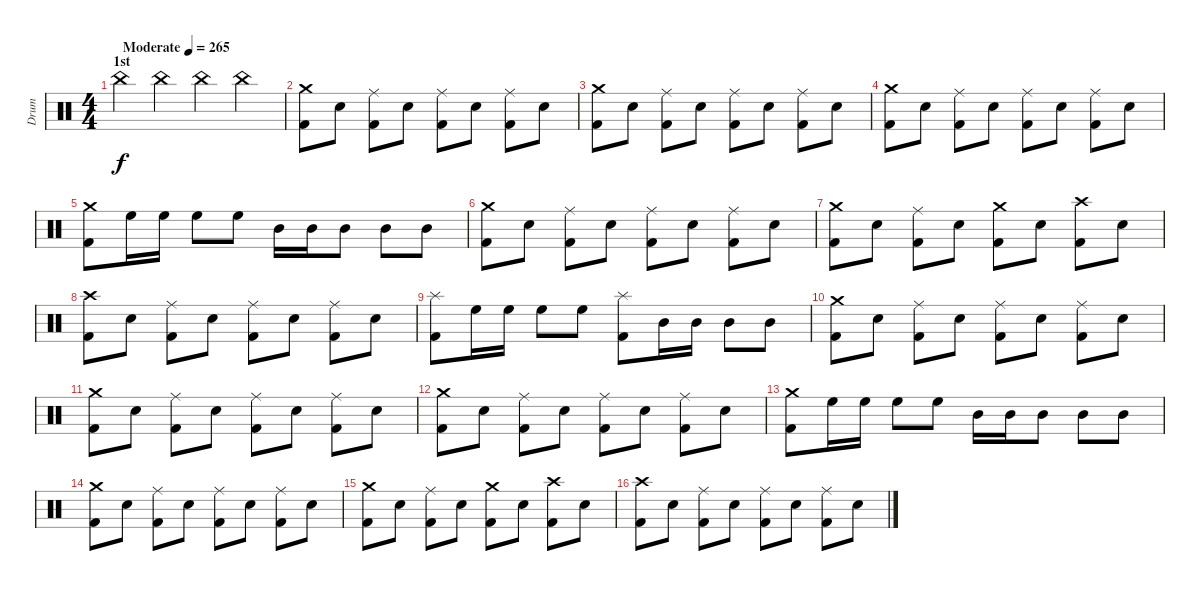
\track ("Drum" "Drum") {instrument percussion}
\staff {score}
\articulation defaults
\ts (4 4)
\section ("" "1st")
\tempo (265 "Moderate")
\clef neutral
\ks c "China (hit)".4{dy f} "China (hit)".4 "China (hit)".4 "China (hit)".4
|
("Crash medium (hit)" "Kick (hit) 2").8 "Snare (hit) 2".8 ("Ride (middle)" "Kick (hit) 2").8 "Snare (hit) 2".8 ("Ride (middle)" "Kick (hit) 2").8 "Snare (hit) 2".8 ("Ride (middle)" "Kick (hit) 2").8 "Snare (hit) 2".8 |
("Crash medium (hit)" "Kick (hit) 2").8 "Snare (hit) 2".8 ("Ride (middle)" "Kick (hit) 2").8 "Snare (hit) 2".8 ("Ride (middle)" "Kick (hit) 2").8 "Snare (hit) 2".8 ("Ride (middle)" "Kick (hit) 2").8 "Snare (hit) 2".8 |
("Crash medium (hit)" "Kick (hit) 2").8 "Snare (hit) 2".8 ("Ride (middle)" "Kick (hit) 2").8 "Snare (hit) 2".8 ("Ride (middle)" "Kick (hit) 2").8 "Snare (hit) 2".8 ("Ride (middle)" "Kick (hit) 2").8 "Snare (hit) 2".8 |
("Crash medium (hit)" "Kick (hit) 2").8 "High Floor Tom (hit)".16 "High Floor Tom (hit)".16 "High Floor Tom (hit)".8 "High Floor Tom (hit)".8 "Mid Tom (hit)".16 "Mid Tom (hit)".16 "Mid Tom (hit)".8 "Mid Tom (hit)".8 "Mid Tom (hit)".8 |
("Crash medium (hit)" "Kick (hit) 2").8 "Snare (hit) 2".8 ("Ride (middle)" "Kick (hit) 2").8 "Snare (hit) 2".8 ("Ride (middle)" "Kick (hit) 2").8 "Snare (hit) 2".8 ("Ride (middle)" "Kick (hit) 2").8 "Snare (hit) 2".8 |
("Crash medium (hit)" "Kick (hit) 2").8 "Snare (hit) 2".8 ("Ride (middle)" "Kick (hit) 2").8 "Snare (hit) 2".8 ("Crash medium (hit)" "Kick (hit) 2").8 "Snare (hit) 2".8 ("Crash high (hit)" "Kick (hit) 2").8 "Snare (hit) 2".8 |
("Crash high (hit)" "Kick (hit) 2").8 "Snare (hit) 2".8 ("Ride (middle)" "Kick (hit) 2").8 "Snare (hit) 2".8 ("Ride (middle)" "Kick (hit) 2").8 "Snare (hit) 2".8 ("Ride (middle)" "Kick (hit) 2").8 "Snare (hit) 2".8 |
("Splash (hit)" "Kick (hit) 2").8 "High Floor Tom (hit)".16 "High Floor Tom (hit)".16 "High Floor Tom (hit)".8 "High Floor Tom (hit)".8 ("Splash (hit)" "Kick (hit) 2").8 "Mid Tom (hit)".16 "Mid Tom (hit)".16 "Mid Tom (hit)".8 "Mid Tom (hit)".8 |
("Crash medium (hit)" "Kick (hit) 2").8 "Snare (hit) 2".8 ("Ride (middle)" "Kick (hit) 2").8 "Snare (hit) 2".8 ("Ride (middle)" "Kick (hit) 2").8 "Snare (hit) 2".8 ("Ride (middle)" "Kick (hit) 2").8 "Snare (hit) 2".8 |
("Crash medium (hit)" "Kick (hit) 2").8 "Snare (hit) 2".8 ("Ride (middle)" "Kick (hit) 2").8 "Snare (hit) 2".8 ("Ride (middle)" "Kick (hit) 2").8 "Snare (hit) 2".8 ("Ride (middle)" "Kick (hit) 2").8 "Snare (hit) 2".8 |
("Crash medium (hit)" "Kick (hit) 2").8 "Snare (hit) 2".8 ("Ride (middle)" "Kick (hit) 2").8 "Snare (hit) 2".8 ("Ride (middle)" "Kick (hit) 2").8 "Snare (hit) 2".8 ("Ride (middle)" "Kick (hit) 2").8 "Snare (hit) 2".8 |
("Crash medium (hit)" "Kick (hit) 2").8 "High Floor Tom (hit)".16 "High Floor Tom (hit)".16 "High Floor Tom (hit)".8 "High Floor Tom (hit)".8 "Mid Tom (hit)".16 "Mid Tom (hit)".16 "Mid Tom (hit)".8 "Mid Tom (hit)".8 "Mid Tom (hit)".8 |
("Crash medium (hit)" "Kick (hit) 2").8 "Snare (hit) 2".8 ("Ride (middle)" "Kick (hit) 2").8 "Snare (hit) 2".8 ("Ride (middle)" "Kick (hit) 2").8 "Snare (hit) 2".8 ("Ride (middle)" "Kick (hit) 2").8 "Snare (hit) 2".8 |
("Crash medium (hit)" "Kick (hit) 2").8 "Snare (hit) 2".8 ("Ride (middle)" "Kick (hit) 2").8 "Snare (hit) 2".8 ("Crash medium (hit)" "Kick (hit) 2").8 "Snare (hit) 2".8 ("Crash high (hit)" "Kick (hit) 2").8 "Snare (hit) 2".8 |
("Crash high (hit)" "Kick (hit) 2").8 "Snare (hit) 2".8 ("Ride (middle)" "Kick (hit) 2").8 "Snare (hit) 2".8 ("Ride (middle)" "Kick (hit) 2").8 "Snare (hit) 2".8 ("Ride (middle)" "Kick (hit) 2").8 "Snare (hit) 2".8
